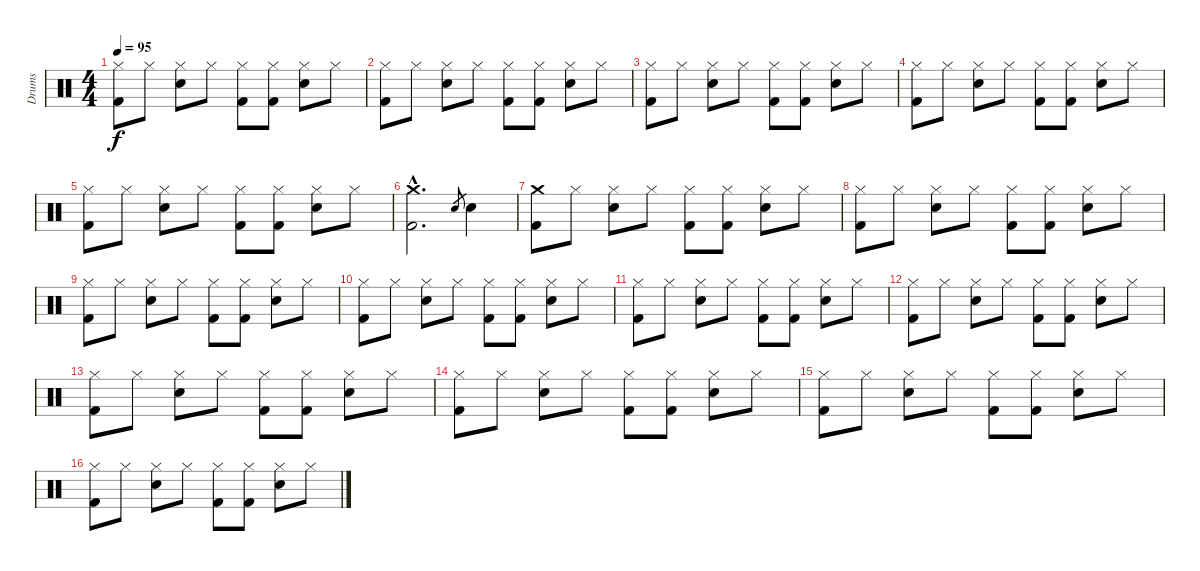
\track ("Drums" "Drums") {instrument percussion}
\staff {score}
\articulation defaults
\ts (4 4)
\tempo 95
\clef neutral
\ks c
("Hi-Hat (closed)" "Kick (hit) 2").8{dy f} "Hi-Hat (closed)".8 ("Hi-Hat (closed)" "Snare (hit) 2").8 "Hi-Hat (closed)".8 ("Hi-Hat (closed)" "Kick (hit) 2").8 ("Hi-Hat (closed)" "Kick (hit) 2").8 ("Hi-Hat (closed)" "Snare (hit) 2").8 "Hi-Hat (closed)".8 |
("Hi-Hat (closed)" "Kick (hit) 2").8 "Hi-Hat (closed)".8 ("Hi-Hat (closed)" "Snare (hit) 2").8 "Hi-Hat (closed)".8 ("Hi-Hat (closed)" "Kick (hit) 2").8 ("Hi-Hat (closed)" "Kick (hit) 2").8 ("Hi-Hat (closed)" "Snare (hit) 2").8 "Hi-Hat (closed)".8 |
("Hi-Hat (closed)" "Kick (hit) 2").8 "Hi-Hat (closed)".8 ("Hi-Hat (closed)" "Snare (hit) 2").8 "Hi-Hat (closed)".8 ("Hi-Hat (closed)" "Kick (hit) 2").8 ("Hi-Hat (closed)" "Kick (hit) 2").8 ("Hi-Hat (closed)" "Snare (hit) 2").8 "Hi-Hat (closed)".8 |
("Hi-Hat (closed)" "Kick (hit) 2").8 "Hi-Hat (closed)".8 ("Hi-Hat (closed)" "Snare (hit) 2").8 "Hi-Hat (closed)".8 ("Hi-Hat (closed)" "Kick (hit) 2").8 ("Hi-Hat (closed)" "Kick (hit) 2").8 ("Hi-Hat (closed)" "Snare (hit) 2").8 "Hi-Hat (closed)".8 |
("Hi-Hat (closed)" "Kick (hit) 2").8 "Hi-Hat (closed)".8 ("Hi-Hat (closed)" "Snare (hit) 2").8 "Hi-Hat (closed)".8 ("Hi-Hat (closed)" "Kick (hit) 2").8 ("Hi-Hat (closed)" "Kick (hit) 2").8 ("Hi-Hat (closed)" "Snare (hit) 2").8 "Hi-Hat (closed)".8 |
("Crash medium (hit)"{hac} "Kick (hit) 2"{hac}).2{d} "Snare (hit) 2".8{gr} "Snare (hit) 2".4 |
("Crash medium (hit)" "Kick (hit) 2").8 "Hi-Hat (closed)".8 ("Hi-Hat (closed)" "Snare (hit) 2").8 "Hi-Hat (closed)".8 ("Hi-Hat (closed)" "Kick (hit) 2").8 ("Hi-Hat (closed)" "Kick (hit) 2").8 ("Hi-Hat (closed)" "Snare (hit) 2").8 "Hi-Hat (closed)".8 |
("Hi-Hat (closed)" "Kick (hit) 2").8 "Hi-Hat (closed)".8 ("Hi-Hat (closed)" "Snare (hit) 2").8 "Hi-Hat (closed)".8 ("Hi-Hat (closed)" "Kick (hit) 2").8 ("Hi-Hat (closed)" "Kick (hit) 2").8 ("Hi-Hat (closed)" "Snare (hit) 2").8 "Hi-Hat (closed)".8 |
("Hi-Hat (closed)" "Kick (hit) 2").8 "Hi-Hat (closed)".8 ("Hi-Hat (closed)" "Snare (hit) 2").8 "Hi-Hat (closed)".8 ("Hi-Hat (closed)" "Kick (hit) 2").8 ("Hi-Hat (closed)" "Kick (hit) 2").8 ("Hi-Hat (closed)" "Snare (hit) 2").8 "Hi-Hat (closed)".8 |
("Hi-Hat (closed)" "Kick (hit) 2").8 "Hi-Hat (closed)".8 ("Hi-Hat (closed)" "Snare (hit) 2").8 "Hi-Hat (closed)".8 ("Hi-Hat (closed)" "Kick (hit) 2").8 ("Hi-Hat (closed)" "Kick (hit) 2").8 ("Hi-Hat (closed)" "Snare (hit) 2").8 "Hi-Hat (closed)".8 |
("Hi-Hat (closed)" "Kick (hit) 2").8 "Hi-Hat (closed)".8 ("Hi-Hat (closed)" "Snare (hit) 2").8 "Hi-Hat (closed)".8 ("Hi-Hat (closed)" "Kick (hit) 2").8 ("Hi-Hat (closed)" "Kick (hit) 2").8 ("Hi-Hat (closed)" "Snare (hit) 2").8 "Hi-Hat (closed)".8 |
("Hi-Hat (closed)" "Kick (hit) 2").8 "Hi-Hat (closed)".8 ("Hi-Hat (closed)" "Snare (hit) 2").8 "Hi-Hat (closed)".8 ("Hi-Hat (closed)" "Kick (hit) 2").8 ("Hi-Hat (closed)" "Kick (hit) 2").8 ("Hi-Hat (closed)" "Snare (hit) 2").8 "Hi-Hat (closed)".8 |
("Hi-Hat (closed)" "Kick (hit) 2").8 "Hi-Hat (closed)".8 ("Hi-Hat (closed)" "Snare (hit) 2").8 "Hi-Hat (closed)".8 ("Hi-Hat (closed)" "Kick (hit) 2").8 ("Hi-Hat (closed)" "Kick (hit) 2").8 ("Hi-Hat (closed)" "Snare (hit) 2").8 "Hi-Hat (closed)".8 |
("Hi-Hat (closed)" "Kick (hit) 2").8 "Hi-Hat (closed)".8 ("Hi-Hat (closed)" "Snare (hit) 2").8 "Hi-Hat (closed)".8 ("Hi-Hat (closed)" "Kick (hit) 2").8 ("Hi-Hat (closed)" "Kick (hit) 2").8 ("Hi-Hat (closed)" "Snare (hit) 2").8 "Hi-Hat (closed)".8 |
("Hi-Hat (closed)" "Kick (hit) 2").8 "Hi-Hat (closed)".8 ("Hi-Hat (closed)" "Snare (hit) 2").8 "Hi-Hat (closed)".8 ("Hi-Hat (closed)" "Kick (hit) 2").8 ("Hi-Hat (closed)" "Kick (hit) 2").8 ("Hi-Hat (closed)" "Snare (hit) 2").8 "Hi-Hat (closed)".8 |
("Hi-Hat (closed)" "Kick (hit) 2").8 "Hi-Hat (closed)".8 ("Hi-Hat (closed)" "Snare (hit) 2").8 "Hi-Hat (closed)".8 ("Hi-Hat (closed)" "Kick (hit) 2").8 ("Hi-Hat (closed)" "Kick (hit) 2").8 ("Hi-Hat (closed)" "Snare (hit) 2").8 "Hi-Hat (closed)".8
